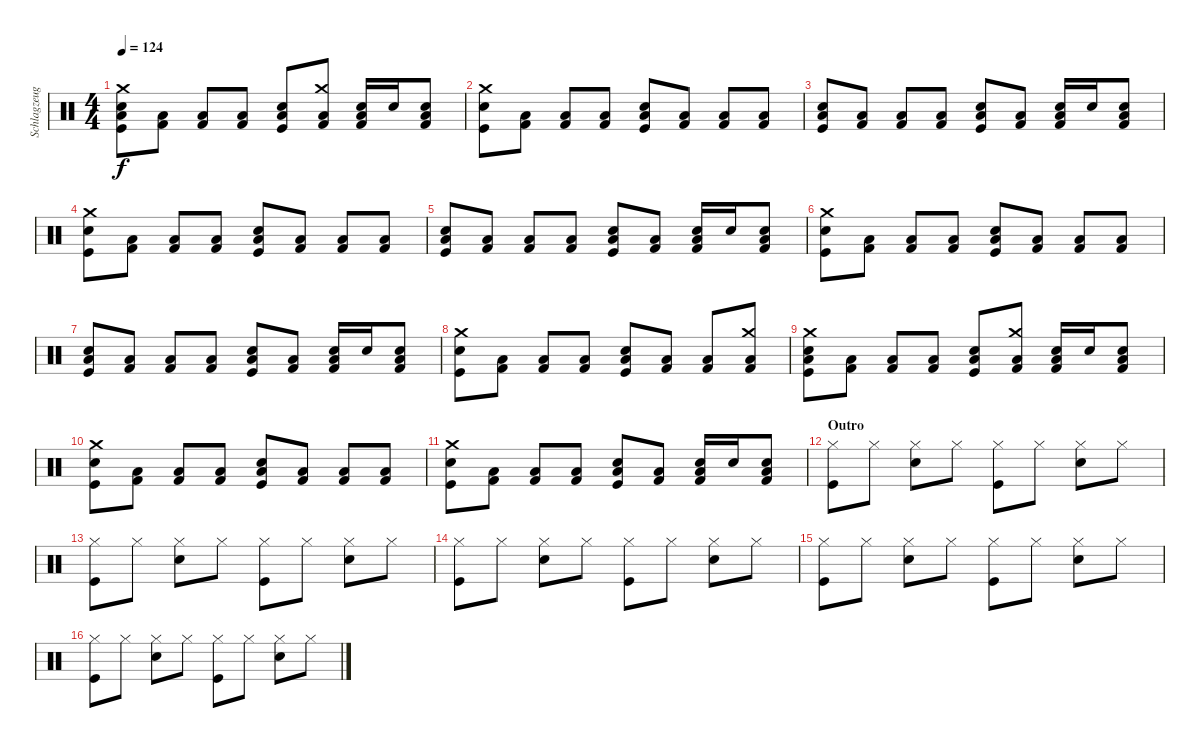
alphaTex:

\track ("Schlagzeug - Bela B." "Schlagzeug") {instrument percussion}
\staff {score}
\articulation defaults
\ts (4 4)
\tempo 124
\clef neutral
\ks c
("Low Floor Tom (hit)" "Kick (hit)" "Snare (hit) 2" "Crash medium (hit)").8{dy f} ("Low Floor Tom (hit)" "Kick (hit) 2").8 ("Low Floor Tom (hit)" "Kick (hit) 2").8 ("Low Floor Tom (hit)" "Kick (hit) 2").8 ("Low Floor Tom (hit)" "Kick (hit)" "Snare (hit) 2").8 ("Low Floor Tom (hit)" "Kick (hit) 2" "Crash medium (hit)").8 ("Low Floor Tom (hit)" "Kick (hit) 2" "Snare (hit) 2").16 "Snare (hit) 2".16 ("Low Floor Tom (hit)" "Kick (hit) 2" "Snare (hit) 2").8 |
("Kick (hit)" "Snare (hit) 2" "Crash medium (hit)").8 ("Low Floor Tom (hit)" "Kick (hit) 2").8 ("Low Floor Tom (hit)" "Kick (hit) 2").8 ("Low Floor Tom (hit)" "Kick (hit) 2").8 ("Low Floor Tom (hit)" "Kick (hit)" "Snare (hit) 2").8 ("Low Floor Tom (hit)" "Kick (hit) 2").8 ("Low Floor Tom (hit)" "Kick (hit) 2").8 ("Low Floor Tom (hit)" "Kick (hit) 2").8 |
("Low Floor Tom (hit)" "Kick (hit)" "Snare (hit) 2").8 ("Low Floor Tom (hit)" "Kick (hit) 2").8 ("Low Floor Tom (hit)" "Kick (hit) 2").8 ("Low Floor Tom (hit)" "Kick (hit) 2").8 ("Low Floor Tom (hit)" "Kick (hit)" "Snare (hit) 2").8 ("Low Floor Tom (hit)" "Kick (hit) 2").8 ("Low Floor Tom (hit)" "Kick (hit) 2" "Snare (hit) 2").16 "Snare (hit) 2".16 ("Low Floor Tom (hit)" "Kick (hit) 2" "Snare (hit) 2").8 |
("Crash medium (hit)" "Kick (hit)" "Snare (hit) 2").8 ("Low Floor Tom (hit)" "Kick (hit) 2").8 ("Low Floor Tom (hit)" "Kick (hit) 2").8 ("Low Floor Tom (hit)" "Kick (hit) 2").8 ("Low Floor Tom (hit)" "Kick (hit)" "Snare (hit) 2").8 ("Low Floor Tom (hit)" "Kick (hit) 2").8 ("Low Floor Tom (hit)" "Kick (hit) 2").8 ("Low Floor Tom (hit)" "Kick (hit) 2").8 |
("Low Floor Tom (hit)" "Kick (hit)" "Snare (hit) 2").8 ("Low Floor Tom (hit)" "Kick (hit) 2").8 ("Low Floor Tom (hit)" "Kick (hit) 2").8 ("Low Floor Tom (hit)" "Kick (hit) 2").8 ("Low Floor Tom (hit)" "Kick (hit)" "Snare (hit) 2").8 ("Low Floor Tom (hit)" "Kick (hit) 2").8 ("Low Floor Tom (hit)" "Kick (hit) 2" "Snare (hit) 2").16 "Snare (hit) 2".16 ("Low Floor Tom (hit)" "Kick (hit) 2" "Snare (hit) 2").8 |
("Crash medium (hit)" "Kick (hit)" "Snare (hit) 2").8 ("Low Floor Tom (hit)" "Kick (hit) 2").8 ("Low Floor Tom (hit)" "Kick (hit) 2").8 ("Low Floor Tom (hit)" "Kick (hit) 2").8 ("Low Floor Tom (hit)" "Kick (hit)" "Snare (hit) 2").8 ("Low Floor Tom (hit)" "Kick (hit) 2").8 ("Low Floor Tom (hit)" "Kick (hit) 2").8 ("Low Floor Tom (hit)" "Kick (hit) 2").8 |
("Low Floor Tom (hit)" "Kick (hit)" "Snare (hit) 2").8 ("Low Floor Tom (hit)" "Kick (hit) 2").8 ("Low Floor Tom (hit)" "Kick (hit) 2").8 ("Low Floor Tom (hit)" "Kick (hit) 2").8 ("Low Floor Tom (hit)" "Kick (hit)" "Snare (hit) 2").8 ("Low Floor Tom (hit)" "Kick (hit) 2").8 ("Low Floor Tom (hit)" "Kick (hit) 2" "Snare (hit) 2").16 "Snare (hit) 2".16 ("Low Floor Tom (hit)" "Kick (hit) 2" "Snare (hit) 2").8 |
("Crash medium (hit)" "Kick (hit)" "Snare (hit) 2").8 ("Low Floor Tom (hit)" "Kick (hit) 2").8 ("Low Floor Tom (hit)" "Kick (hit) 2").8 ("Low Floor Tom (hit)" "Kick (hit) 2").8 ("Low Floor Tom (hit)" "Kick (hit)" "Snare (hit) 2").8 ("Low Floor Tom (hit)" "Kick (hit) 2").8 ("Low Floor Tom (hit)" "Kick (hit) 2").8 ("Low Floor Tom (hit)" "Kick (hit) 2" "Crash medium (hit)").8 |
("Low Floor Tom (hit)" "Kick (hit)" "Snare (hit) 2" "Crash medium (hit)").8 ("Low Floor Tom (hit)" "Kick (hit) 2").8 ("Low Floor Tom (hit)" "Kick (hit) 2").8 ("Low Floor Tom (hit)" "Kick (hit) 2").8 ("Low Floor Tom (hit)" "Kick (hit)" "Snare (hit) 2").8 ("Low Floor Tom (hit)" "Kick (hit) 2" "Crash medium (hit)").8 ("Low Floor Tom (hit)" "Kick (hit) 2" "Snare (hit) 2").16 "Snare (hit) 2".16 ("Low Floor Tom (hit)" "Kick (hit) 2" "Snare (hit) 2").8 |
("Kick (hit)" "Snare (hit) 2" "Crash medium (hit)").8 ("Low Floor Tom (hit)" "Kick (hit) 2").8 ("Low Floor Tom (hit)" "Kick (hit) 2").8 ("Low Floor Tom (hit)" "Kick (hit) 2").8 ("Low Floor Tom (hit)" "Kick (hit)" "Snare (hit) 2").8 ("Low Floor Tom (hit)" "Kick (hit) 2").8 ("Low Floor Tom (hit)" "Kick (hit) 2").8 ("Low Floor Tom (hit)" "Kick (hit) 2").8 |
("Kick (hit)" "Snare (hit) 2" "Crash medium (hit)").8 ("Low Floor Tom (hit)" "Kick (hit) 2").8 ("Low Floor Tom (hit)" "Kick (hit) 2").8 ("Low Floor Tom (hit)" "Kick (hit) 2").8 ("Low Floor Tom (hit)" "Kick (hit)" "Snare (hit) 2").8 ("Low Floor Tom (hit)" "Kick (hit) 2").8 ("Low Floor Tom (hit)" "Kick (hit) 2" "Snare (hit) 2").16 "Snare (hit) 2".16 ("Low Floor Tom (hit)" "Kick (hit) 2" "Snare (hit) 2").8 |
\section ("" "Outro")
("Kick (hit)" "Hi-Hat (closed)").8 "Hi-Hat (closed)".8 ("Snare (hit) 2" "Hi-Hat (closed)").8 "Hi-Hat (closed)".8 ("Kick (hit)" "Hi-Hat (closed)").8 "Hi-Hat (closed)".8 ("Snare (hit) 2" "Hi-Hat (closed)").8 "Hi-Hat (closed)".8 |
("Kick (hit)" "Hi-Hat (closed)").8 "Hi-Hat (closed)".8 ("Snare (hit) 2" "Hi-Hat (closed)").8 "Hi-Hat (closed)".8 ("Kick (hit)" "Hi-Hat (closed)").8 "Hi-Hat (closed)".8 ("Snare (hit) 2" "Hi-Hat (closed)").8 "Hi-Hat (closed)".8 |
("Kick (hit)" "Hi-Hat (closed)").8 "Hi-Hat (closed)".8 ("Snare (hit) 2" "Hi-Hat (closed)").8 "Hi-Hat (closed)".8 ("Kick (hit)" "Hi-Hat (closed)").8 "Hi-Hat (closed)".8 ("Snare (hit) 2" "Hi-Hat (closed)").8 "Hi-Hat (closed)".8 |
("Kick (hit)" "Hi-Hat (closed)").8 "Hi-Hat (closed)".8 ("Snare (hit) 2" "Hi-Hat (closed)").8 "Hi-Hat (closed)".8 ("Kick (hit)" "Hi-Hat (closed)").8 "Hi-Hat (closed)".8 ("Snare (hit) 2" "Hi-Hat (closed)").8 "Hi-Hat (closed)".8 |
("Kick (hit)" "Hi-Hat (closed)").8 "Hi-Hat (closed)".8 ("Snare (hit) 2" "Hi-Hat (closed)").8 "Hi-Hat (closed)".8 ("Kick (hit)" "Hi-Hat (closed)").8 "Hi-Hat (closed)".8 ("Snare (hit) 2" "Hi-Hat (closed)").8 "Hi-Hat (closed)".8
